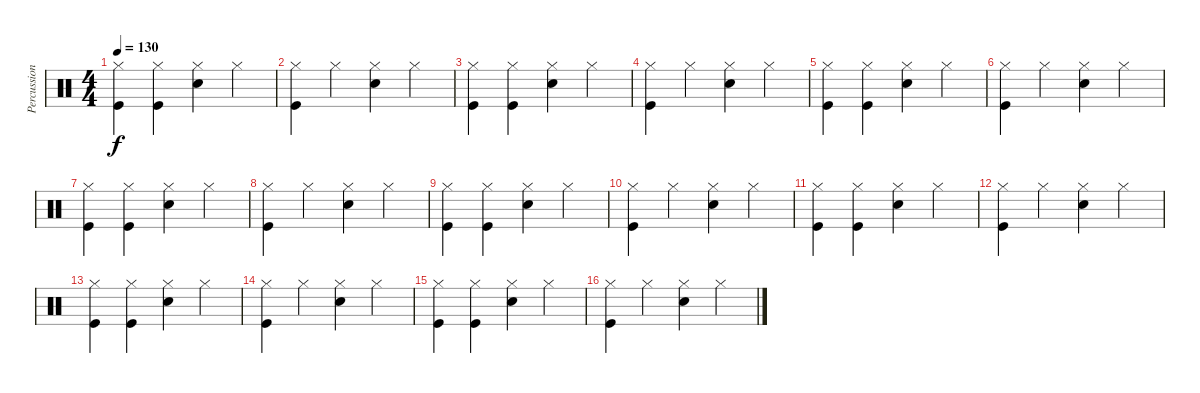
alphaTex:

\track ("Percussion" "Percussion") {instrument percussion}
\staff {score}
\articulation defaults
\ts (4 4)
\tempo 130
\clef neutral
\ks c
("Hi-Hat (closed)" "Kick (hit)").4{dy f} ("Hi-Hat (closed)" "Kick (hit)").4 ("Hi-Hat (closed)" "Snare (hit) 2").4 "Hi-Hat (closed)".4 |
("Hi-Hat (closed)" "Kick (hit)").4 "Hi-Hat (closed)".4 ("Hi-Hat (closed)" "Snare (hit) 2").4 "Hi-Hat (closed)".4 |
("Hi-Hat (closed)" "Kick (hit)").4 ("Hi-Hat (closed)" "Kick (hit)").4 ("Hi-Hat (closed)" "Snare (hit) 2").4 "Hi-Hat (closed)".4 |
("Hi-Hat (closed)" "Kick (hit)").4 "Hi-Hat (closed)".4 ("Hi-Hat (closed)" "Snare (hit) 2").4 "Hi-Hat (closed)".4 |
("Hi-Hat (closed)" "Kick (hit)").4 ("Hi-Hat (closed)" "Kick (hit)").4 ("Hi-Hat (closed)" "Snare (hit) 2").4 "Hi-Hat (closed)".4 |
("Hi-Hat (closed)" "Kick (hit)").4 "Hi-Hat (closed)".4 ("Hi-Hat (closed)" "Snare (hit) 2").4 "Hi-Hat (closed)".4 |
("Hi-Hat (closed)" "Kick (hit)").4 ("Hi-Hat (closed)" "Kick (hit)").4 ("Hi-Hat (closed)" "Snare (hit) 2").4 "Hi-Hat (closed)".4 |
("Hi-Hat (closed)" "Kick (hit)").4 "Hi-Hat (closed)".4 ("Hi-Hat (closed)" "Snare (hit) 2").4 "Hi-Hat (closed)".4 |
("Hi-Hat (closed)" "Kick (hit)").4 ("Hi-Hat (closed)" "Kick (hit)").4 ("Hi-Hat (closed)" "Snare (hit) 2").4 "Hi-Hat (closed)".4 |
("Hi-Hat (closed)" "Kick (hit)").4 "Hi-Hat (closed)".4 ("Hi-Hat (closed)" "Snare (hit) 2").4 "Hi-Hat (closed)".4 |
("Hi-Hat (closed)" "Kick (hit)").4 ("Hi-Hat (closed)" "Kick (hit)").4 ("Hi-Hat (closed)" "Snare (hit) 2").4 "Hi-Hat (closed)".4 |
("Hi-Hat (closed)" "Kick (hit)").4 "Hi-Hat (closed)".4 ("Hi-Hat (closed)" "Snare (hit) 2").4 "Hi-Hat (closed)".4 |
("Hi-Hat (closed)" "Kick (hit)").4 ("Hi-Hat (closed)" "Kick (hit)").4 ("Hi-Hat (closed)" "Snare (hit) 2").4 "Hi-Hat (closed)".4 |
("Hi-Hat (closed)" "Kick (hit)").4 "Hi-Hat (closed)".4 ("Hi-Hat (closed)" "Snare (hit) 2").4 "Hi-Hat (closed)".4 |
("Hi-Hat (closed)" "Kick (hit)").4 ("Hi-Hat (closed)" "Kick (hit)").4 ("Hi-Hat (closed)" "Snare (hit) 2").4 "Hi-Hat (closed)".4 |
("Hi-Hat (closed)" "Kick (hit)").4 "Hi-Hat (closed)".4 ("Hi-Hat (closed)" "Snare (hit) 2").4 "Hi-Hat (closed)".4
